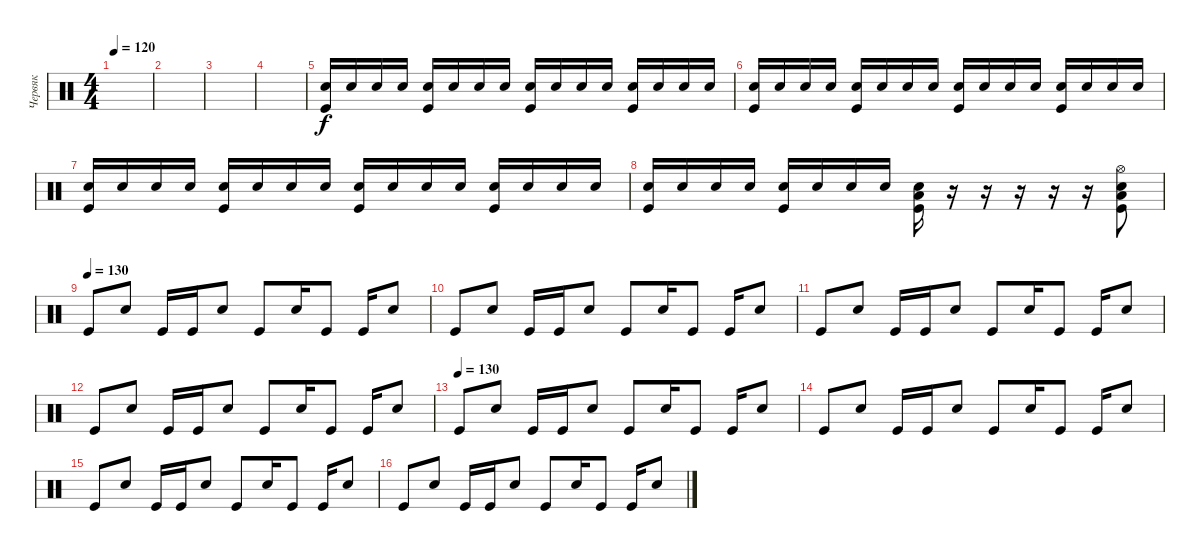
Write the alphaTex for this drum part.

\track ("Червяк" "Червяк") {instrument percussion}
\staff {score}
\articulation defaults
\ts (4 4)
\tempo 120
\clef neutral
\ks c
|
|
|
|
("Electric Snare (hit)" "Kick (hit)").16{volume 2} "Electric Snare (hit)".16{volume 13} "Electric Snare (hit)".16 "Electric Snare (hit)".16 ("Electric Snare (hit)" "Kick (hit)").16 "Electric Snare (hit)".16 "Electric Snare (hit)".16 "Electric Snare (hit)".16 ("Electric Snare (hit)" "Kick (hit)").16 "Electric Snare (hit)".16 "Electric Snare (hit)".16 "Electric Snare (hit)".16 ("Electric Snare (hit)" "Kick (hit)").16 "Electric Snare (hit)".16 "Electric Snare (hit)".16 "Electric Snare (hit)".16 |
("Electric Snare (hit)" "Kick (hit)").16 "Electric Snare (hit)".16 "Electric Snare (hit)".16 "Electric Snare (hit)".16 ("Electric Snare (hit)" "Kick (hit)").16 "Electric Snare (hit)".16 "Electric Snare (hit)".16 "Electric Snare (hit)".16 ("Electric Snare (hit)" "Kick (hit)").16 "Electric Snare (hit)".16 "Electric Snare (hit)".16 "Electric Snare (hit)".16 ("Electric Snare (hit)" "Kick (hit)").16 "Electric Snare (hit)".16 "Electric Snare (hit)".16 "Electric Snare (hit)".16 |
("Electric Snare (hit)" "Kick (hit)").16 "Electric Snare (hit)".16 "Electric Snare (hit)".16 "Electric Snare (hit)".16 ("Electric Snare (hit)" "Kick (hit)").16 "Electric Snare (hit)".16 "Electric Snare (hit)".16 "Electric Snare (hit)".16 ("Electric Snare (hit)" "Kick (hit)").16 "Electric Snare (hit)".16 "Electric Snare (hit)".16 "Electric Snare (hit)".16 ("Electric Snare (hit)" "Kick (hit)").16 "Electric Snare (hit)".16 "Electric Snare (hit)".16 "Electric Snare (hit)".16 |
("Electric Snare (hit)" "Kick (hit)").16 "Electric Snare (hit)".16 "Electric Snare (hit)".16 "Electric Snare (hit)".16 ("Electric Snare (hit)" "Kick (hit)").16 "Electric Snare (hit)".16 "Electric Snare (hit)".16 "Electric Snare (hit)".16 ("Electric Snare (hit)" "Low Floor Tom (hit)" "Kick (hit)").16 r.16 r.16 r.16 r.16 r.16 ("Electric Snare (hit)" "Low Floor Tom (hit)" "Kick (hit)" "Hi-Hat (open)").8 |
\tempo (130)
"Kick (hit)".8 "Electric Snare (hit)".8 "Kick (hit)".16 "Kick (hit)".16 "Electric Snare (hit)".8 "Kick (hit)".8 "Electric Snare (hit)".16 "Kick (hit)".8 "Kick (hit)".16 "Electric Snare (hit)".8 |
"Kick (hit)".8 "Electric Snare (hit)".8 "Kick (hit)".16 "Kick (hit)".16 "Electric Snare (hit)".8 "Kick (hit)".8 "Electric Snare (hit)".16 "Kick (hit)".8 "Kick (hit)".16 "Electric Snare (hit)".8 |
"Kick (hit)".8 "Electric Snare (hit)".8 "Kick (hit)".16 "Kick (hit)".16 "Electric Snare (hit)".8 "Kick (hit)".8 "Electric Snare (hit)".16 "Kick (hit)".8 "Kick (hit)".16 "Electric Snare (hit)".8 |
"Kick (hit)".8 "Electric Snare (hit)".8 "Kick (hit)".16 "Kick (hit)".16 "Electric Snare (hit)".8 "Kick (hit)".8 "Electric Snare (hit)".16 "Kick (hit)".8 "Kick (hit)".16 "Electric Snare (hit)".8 |
\tempo (130)
"Kick (hit)".8 "Electric Snare (hit)".8 "Kick (hit)".16 "Kick (hit)".16 "Electric Snare (hit)".8 "Kick (hit)".8 "Electric Snare (hit)".16 "Kick (hit)".8 "Kick (hit)".16 "Electric Snare (hit)".8 |
"Kick (hit)".8 "Electric Snare (hit)".8 "Kick (hit)".16 "Kick (hit)".16 "Electric Snare (hit)".8 "Kick (hit)".8 "Electric Snare (hit)".16 "Kick (hit)".8 "Kick (hit)".16 "Electric Snare (hit)".8 |
"Kick (hit)".8 "Electric Snare (hit)".8 "Kick (hit)".16 "Kick (hit)".16 "Electric Snare (hit)".8 "Kick (hit)".8 "Electric Snare (hit)".16 "Kick (hit)".8 "Kick (hit)".16 "Electric Snare (hit)".8 |
"Kick (hit)".8 "Electric Snare (hit)".8 "Kick (hit)".16 "Kick (hit)".16 "Electric Snare (hit)".8 "Kick (hit)".8 "Electric Snare (hit)".16 "Kick (hit)".8 "Kick (hit)".16 "Electric Snare (hit)".8
